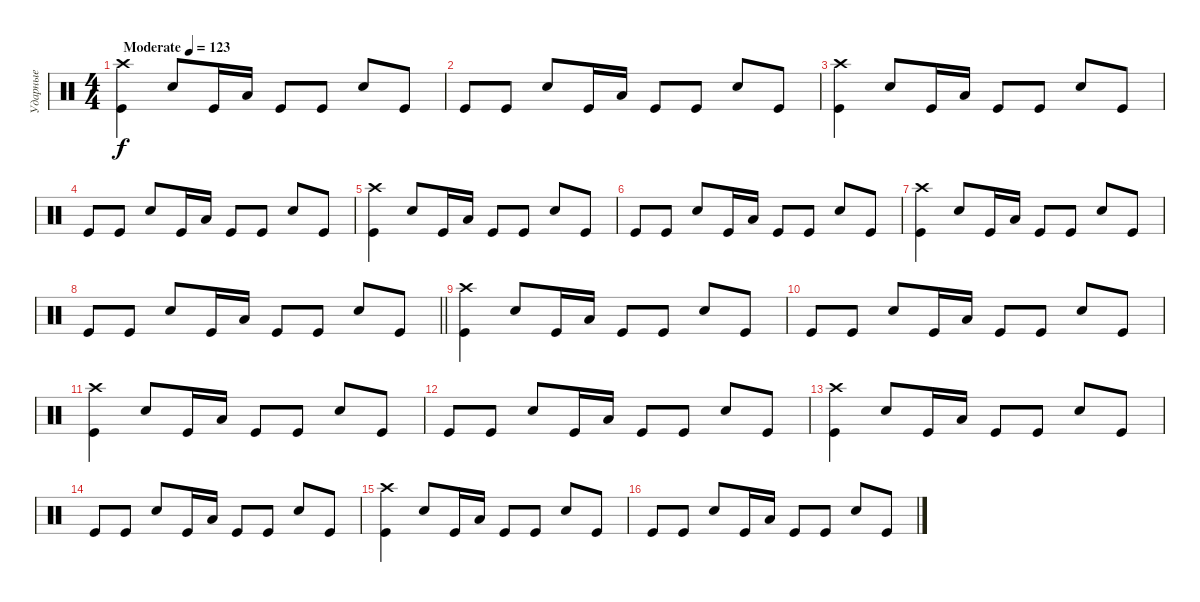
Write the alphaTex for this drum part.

\track ("Ударные" "Ударные") {instrument percussion}
\staff {score}
\articulation defaults
\ts (4 4)
\tempo (123 "Moderate")
\clef neutral
\ks c
("Crash high (hit)" "Kick (hit)").4{dy f} "Electric Snare (hit)".8 "Kick (hit)".16 "Low Tom (hit)".16 "Kick (hit)".8 "Kick (hit)".8 "Electric Snare (hit)".8 "Kick (hit)".8 |
"Kick (hit)".8 "Kick (hit)".8 "Electric Snare (hit)".8 "Kick (hit)".16 "Low Tom (hit)".16 "Kick (hit)".8 "Kick (hit)".8 "Electric Snare (hit)".8 "Kick (hit)".8 |
("Crash high (hit)" "Kick (hit)").4 "Electric Snare (hit)".8 "Kick (hit)".16 "Low Tom (hit)".16 "Kick (hit)".8 "Kick (hit)".8 "Electric Snare (hit)".8 "Kick (hit)".8 |
"Kick (hit)".8 "Kick (hit)".8 "Electric Snare (hit)".8 "Kick (hit)".16 "Low Tom (hit)".16 "Kick (hit)".8 "Kick (hit)".8 "Electric Snare (hit)".8 "Kick (hit)".8 |
("Crash high (hit)" "Kick (hit)").4 "Electric Snare (hit)".8 "Kick (hit)".16 "Low Tom (hit)".16 "Kick (hit)".8 "Kick (hit)".8 "Electric Snare (hit)".8 "Kick (hit)".8 |
"Kick (hit)".8 "Kick (hit)".8 "Electric Snare (hit)".8 "Kick (hit)".16 "Low Tom (hit)".16 "Kick (hit)".8 "Kick (hit)".8 "Electric Snare (hit)".8 "Kick (hit)".8 |
("Crash high (hit)" "Kick (hit)").4 "Electric Snare (hit)".8 "Kick (hit)".16 "Low Tom (hit)".16 "Kick (hit)".8 "Kick (hit)".8 "Electric Snare (hit)".8 "Kick (hit)".8 |
\barLineRight lightlight "Kick (hit)".8 "Kick (hit)".8 "Electric Snare (hit)".8 "Kick (hit)".16 "Low Tom (hit)".16 "Kick (hit)".8 "Kick (hit)".8 "Electric Snare (hit)".8 "Kick (hit)".8
|
("Crash high (hit)" "Kick (hit)").4 "Electric Snare (hit)".8 "Kick (hit)".16 "Low Tom (hit)".16 "Kick (hit)".8 "Kick (hit)".8 "Electric Snare (hit)".8 "Kick (hit)".8 |
"Kick (hit)".8 "Kick (hit)".8 "Electric Snare (hit)".8 "Kick (hit)".16 "Low Tom (hit)".16 "Kick (hit)".8 "Kick (hit)".8 "Electric Snare (hit)".8 "Kick (hit)".8 |
("Crash high (hit)" "Kick (hit)").4 "Electric Snare (hit)".8 "Kick (hit)".16 "Low Tom (hit)".16 "Kick (hit)".8 "Kick (hit)".8 "Electric Snare (hit)".8 "Kick (hit)".8 |
"Kick (hit)".8 "Kick (hit)".8 "Electric Snare (hit)".8 "Kick (hit)".16 "Low Tom (hit)".16 "Kick (hit)".8 "Kick (hit)".8 "Electric Snare (hit)".8 "Kick (hit)".8 |
("Crash high (hit)" "Kick (hit)").4 "Electric Snare (hit)".8 "Kick (hit)".16 "Low Tom (hit)".16 "Kick (hit)".8 "Kick (hit)".8 "Electric Snare (hit)".8 "Kick (hit)".8 |
"Kick (hit)".8 "Kick (hit)".8 "Electric Snare (hit)".8 "Kick (hit)".16 "Low Tom (hit)".16 "Kick (hit)".8 "Kick (hit)".8 "Electric Snare (hit)".8 "Kick (hit)".8 |
("Crash high (hit)" "Kick (hit)").4 "Electric Snare (hit)".8 "Kick (hit)".16 "Low Tom (hit)".16 "Kick (hit)".8 "Kick (hit)".8 "Electric Snare (hit)".8 "Kick (hit)".8 |
"Kick (hit)".8 "Kick (hit)".8 "Electric Snare (hit)".8 "Kick (hit)".16 "Low Tom (hit)".16 "Kick (hit)".8 "Kick (hit)".8 "Electric Snare (hit)".8 "Kick (hit)".8
